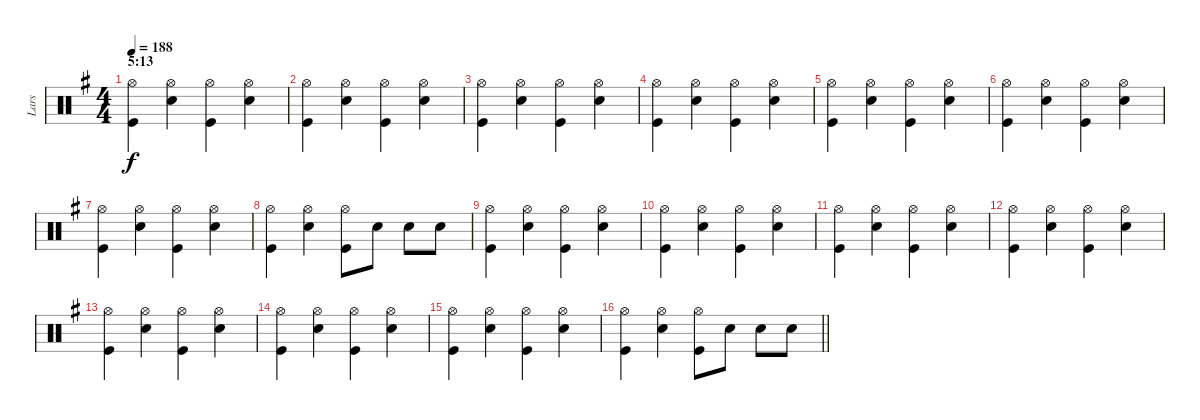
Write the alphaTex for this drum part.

\track ("Lars" "Lars") {instrument percussion}
\staff {score}
\articulation defaults
\ts (4 4)
\section ("" "5:13")
\tempo 188
\clef neutral
\ks eminor
("Hi-Hat (open)" "Kick (hit)").4{dy f} ("Hi-Hat (open)" "Snare (hit) 2").4 ("Hi-Hat (open)" "Kick (hit)").4 ("Hi-Hat (open)" "Snare (hit) 2").4 |
("Hi-Hat (open)" "Kick (hit)").4 ("Hi-Hat (open)" "Snare (hit) 2").4 ("Hi-Hat (open)" "Kick (hit)").4 ("Hi-Hat (open)" "Snare (hit) 2").4 |
("Hi-Hat (open)" "Kick (hit)").4 ("Hi-Hat (open)" "Snare (hit) 2").4 ("Hi-Hat (open)" "Kick (hit)").4 ("Hi-Hat (open)" "Snare (hit) 2").4 |
("Hi-Hat (open)" "Kick (hit)").4 ("Hi-Hat (open)" "Snare (hit) 2").4 ("Hi-Hat (open)" "Kick (hit)").4 ("Hi-Hat (open)" "Snare (hit) 2").4 |
("Hi-Hat (open)" "Kick (hit)").4 ("Hi-Hat (open)" "Snare (hit) 2").4 ("Hi-Hat (open)" "Kick (hit)").4 ("Hi-Hat (open)" "Snare (hit) 2").4 |
("Hi-Hat (open)" "Kick (hit)").4 ("Hi-Hat (open)" "Snare (hit) 2").4 ("Hi-Hat (open)" "Kick (hit)").4 ("Hi-Hat (open)" "Snare (hit) 2").4 |
("Kick (hit)" "Hi-Hat (open)").4 ("Snare (hit) 2" "Hi-Hat (open)").4 ("Hi-Hat (open)" "Kick (hit)").4 ("Hi-Hat (open)" "Snare (hit) 2").4 |
("Hi-Hat (open)" "Kick (hit)").4 ("Hi-Hat (open)" "Snare (hit) 2").4 ("Hi-Hat (open)" "Kick (hit)").8 "Snare (hit) 2".8 "Snare (hit) 2".8 "Snare (hit) 2".8 |
("Hi-Hat (open)" "Kick (hit)").4 ("Hi-Hat (open)" "Snare (hit) 2").4 ("Hi-Hat (open)" "Kick (hit)").4 ("Hi-Hat (open)" "Snare (hit) 2").4 |
("Kick (hit)" "Hi-Hat (open)").4 ("Hi-Hat (open)" "Snare (hit) 2").4 ("Hi-Hat (open)" "Kick (hit)").4 ("Hi-Hat (open)" "Snare (hit) 2").4 |
("Hi-Hat (open)" "Kick (hit)").4 ("Hi-Hat (open)" "Snare (hit) 2").4 ("Hi-Hat (open)" "Kick (hit)").4 ("Hi-Hat (open)" "Snare (hit) 2").4 |
("Hi-Hat (open)" "Kick (hit)").4 ("Hi-Hat (open)" "Snare (hit) 2").4 ("Hi-Hat (open)" "Kick (hit)").4 ("Hi-Hat (open)" "Snare (hit) 2").4 |
("Hi-Hat (open)" "Kick (hit)").4 ("Hi-Hat (open)" "Snare (hit) 2").4 ("Hi-Hat (open)" "Kick (hit)").4 ("Hi-Hat (open)" "Snare (hit) 2").4 |
("Hi-Hat (open)" "Kick (hit)").4 ("Hi-Hat (open)" "Snare (hit) 2").4 ("Kick (hit)" "Hi-Hat (open)").4 ("Hi-Hat (open)" "Snare (hit) 2").4 |
("Hi-Hat (open)" "Kick (hit)").4 ("Hi-Hat (open)" "Snare (hit) 2").4 ("Hi-Hat (open)" "Kick (hit)").4 ("Hi-Hat (open)" "Snare (hit) 2").4 |
\barLineRight lightlight
("Hi-Hat (open)" "Kick (hit)").4 ("Hi-Hat (open)" "Snare (hit) 2").4 ("Hi-Hat (open)" "Kick (hit)").8 "Snare (hit) 2".8 "Snare (hit) 2".8 "Snare (hit) 2".8
